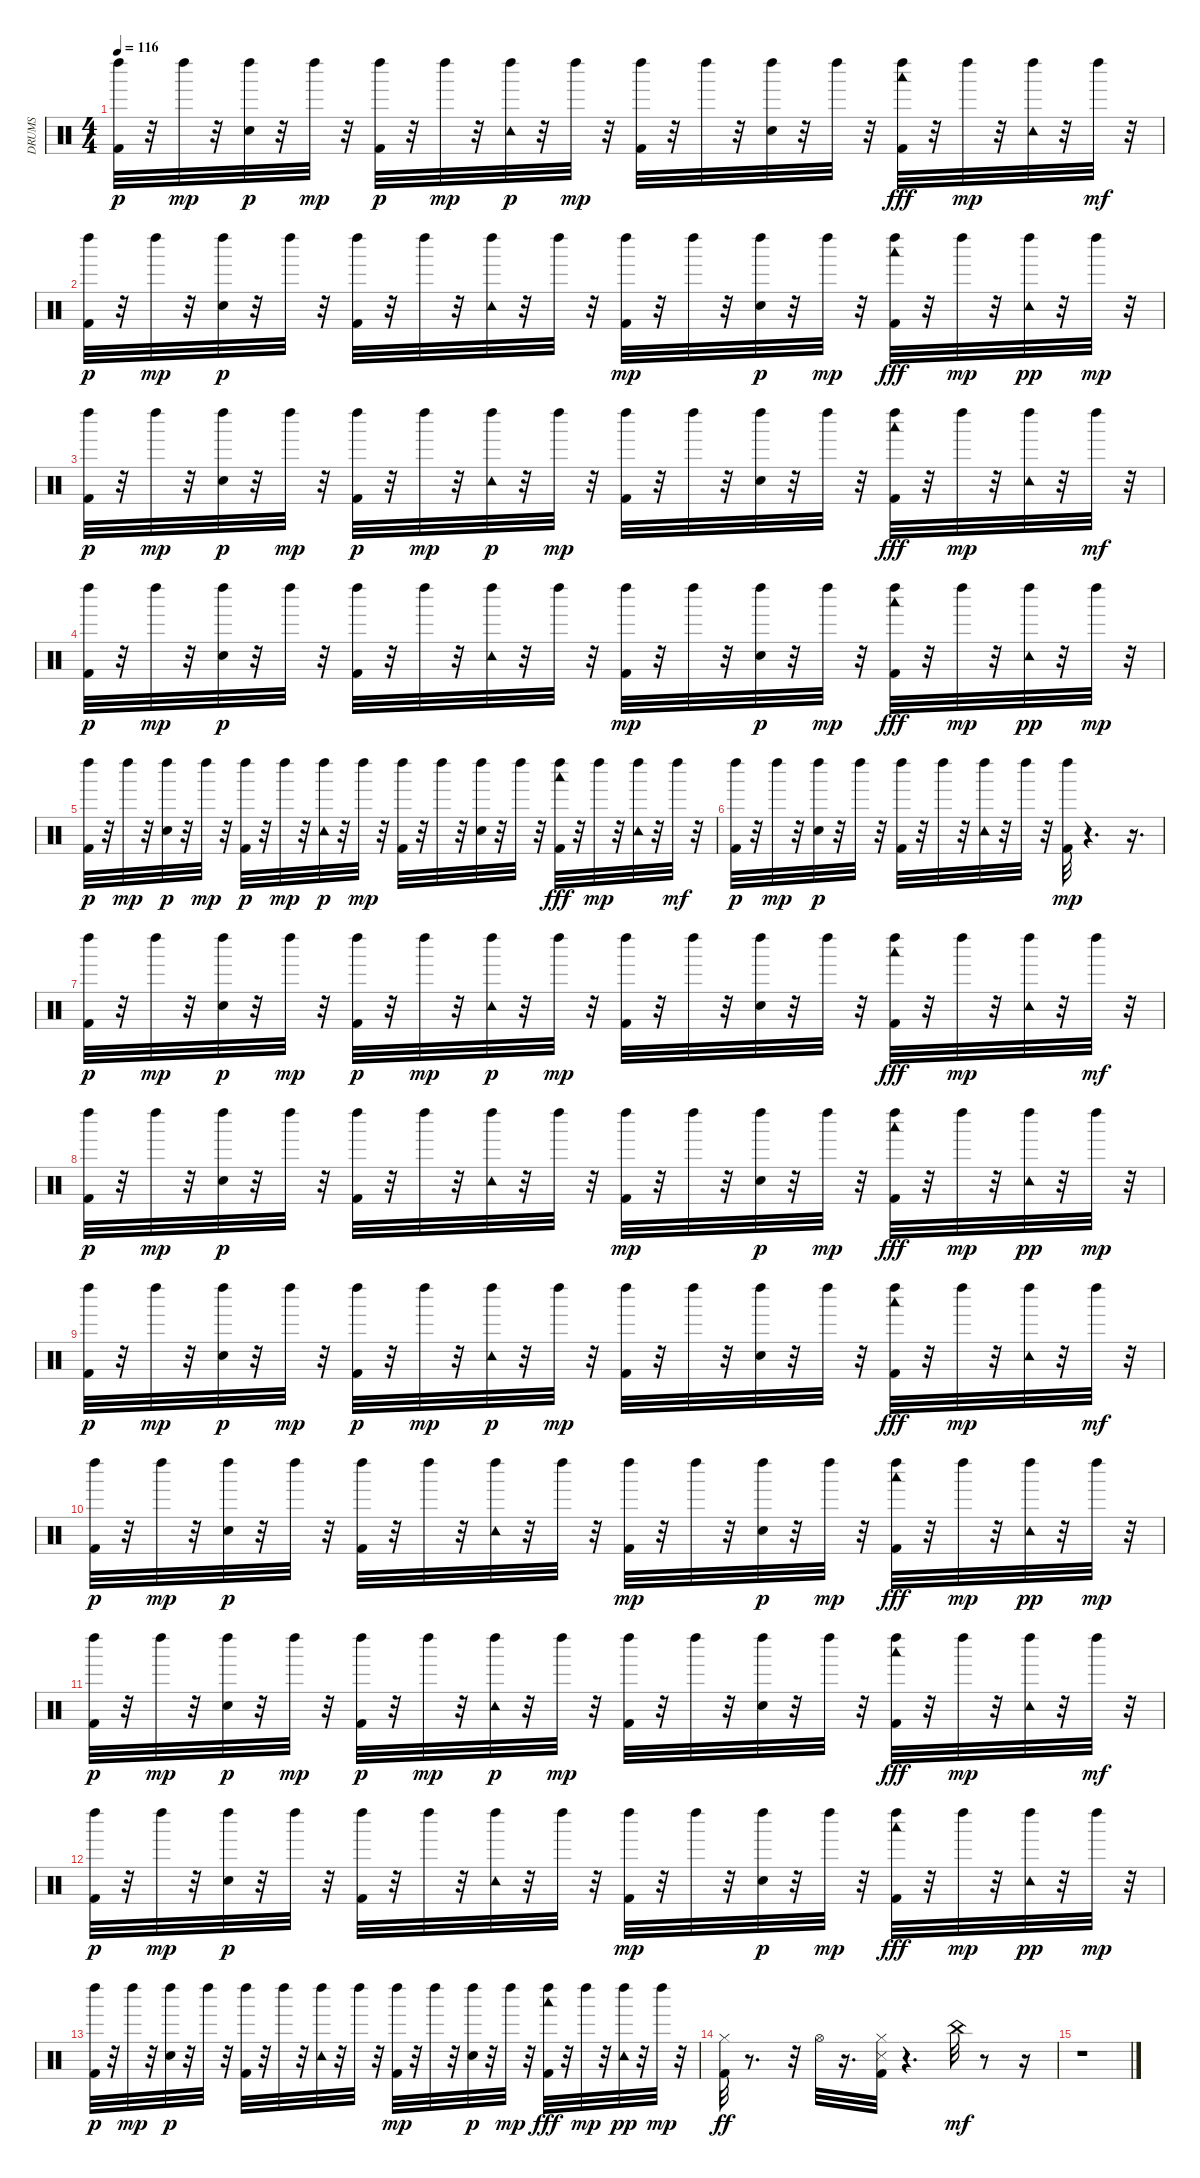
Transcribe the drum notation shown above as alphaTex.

\track ("DRUMS   " "DRUMS   ") {instrument percussion}
\staff {score}
\articulation defaults
\ts (4 4)
\tempo 116
\clef neutral
\ks c
("Kick (hit) 2" "Left Maraca (hit)").32{dy p} r.32 "Left Maraca (hit)".32{dy mp} r.32 ("Snare (hit) 2" "Left Maraca (hit)").32{dy p} r.32 "Left Maraca (hit)".32{dy mp} r.32 ("Kick (hit) 2" "Left Maraca (hit)").32{dy p} r.32 "Left Maraca (hit)".32{dy mp} r.32 ("Tambourine (hit)" "Left Maraca (hit)").32{dy p} r.32 "Left Maraca (hit)".32{dy mp} r.32 ("Kick (hit) 2" "Left Maraca (hit)").32 r.32 "Left Maraca (hit)".32 r.32 ("Snare (hit) 2" "Left Maraca (hit)").32 r.32 "Left Maraca (hit)".32 r.32 ("Kick (hit) 2" "Left Maraca (hit)" "Woodblock low (hit)").32{dy fff} r.32 "Left Maraca (hit)".32{dy mp} r.32 ("Tambourine (hit)" "Left Maraca (hit)").32 r.32 "Left Maraca (hit)".32{dy mf} r.32 |
("Kick (hit) 2" "Left Maraca (hit)").32{dy p} r.32 "Left Maraca (hit)".32{dy mp} r.32 ("Snare (hit) 2" "Left Maraca (hit)").32{dy p} r.32 "Left Maraca (hit)".32 r.32 ("Kick (hit) 2" "Left Maraca (hit)").32 r.32 "Left Maraca (hit)".32 r.32 ("Tambourine (hit)" "Left Maraca (hit)").32 r.32 "Left Maraca (hit)".32 r.32 ("Kick (hit) 2" "Left Maraca (hit)").32{dy mp} r.32 "Left Maraca (hit)".32 r.32 ("Snare (hit) 2" "Left Maraca (hit)").32{dy p} r.32 "Left Maraca (hit)".32{dy mp} r.32 ("Kick (hit) 2" "Left Maraca (hit)" "Woodblock low (hit)").32{dy fff} r.32 "Left Maraca (hit)".32{dy mp} r.32 ("Tambourine (hit)" "Left Maraca (hit)").32{dy pp} r.32 "Left Maraca (hit)".32{dy mp} r.32 |
("Kick (hit) 2" "Left Maraca (hit)").32{dy p} r.32 "Left Maraca (hit)".32{dy mp} r.32 ("Snare (hit) 2" "Left Maraca (hit)").32{dy p} r.32 "Left Maraca (hit)".32{dy mp} r.32 ("Kick (hit) 2" "Left Maraca (hit)").32{dy p} r.32 "Left Maraca (hit)".32{dy mp} r.32 ("Tambourine (hit)" "Left Maraca (hit)").32{dy p} r.32 "Left Maraca (hit)".32{dy mp} r.32 ("Kick (hit) 2" "Left Maraca (hit)").32 r.32 "Left Maraca (hit)".32 r.32 ("Snare (hit) 2" "Left Maraca (hit)").32 r.32 "Left Maraca (hit)".32 r.32 ("Kick (hit) 2" "Left Maraca (hit)" "Woodblock low (hit)").32{dy fff} r.32 "Left Maraca (hit)".32{dy mp} r.32 ("Tambourine (hit)" "Left Maraca (hit)").32 r.32 "Left Maraca (hit)".32{dy mf} r.32 |
("Kick (hit) 2" "Left Maraca (hit)").32{dy p} r.32 "Left Maraca (hit)".32{dy mp} r.32 ("Snare (hit) 2" "Left Maraca (hit)").32{dy p} r.32 "Left Maraca (hit)".32 r.32 ("Kick (hit) 2" "Left Maraca (hit)").32 r.32 "Left Maraca (hit)".32 r.32 ("Tambourine (hit)" "Left Maraca (hit)").32 r.32 "Left Maraca (hit)".32 r.32 ("Kick (hit) 2" "Left Maraca (hit)").32{dy mp} r.32 "Left Maraca (hit)".32 r.32 ("Snare (hit) 2" "Left Maraca (hit)").32{dy p} r.32 "Left Maraca (hit)".32{dy mp} r.32 ("Kick (hit) 2" "Left Maraca (hit)" "Woodblock low (hit)").32{dy fff} r.32 "Left Maraca (hit)".32{dy mp} r.32 ("Tambourine (hit)" "Left Maraca (hit)").32{dy pp} r.32 "Left Maraca (hit)".32{dy mp} r.32 |
("Kick (hit) 2" "Left Maraca (hit)").32{dy p} r.32 "Left Maraca (hit)".32{dy mp} r.32 ("Snare (hit) 2" "Left Maraca (hit)").32{dy p} r.32 "Left Maraca (hit)".32{dy mp} r.32 ("Kick (hit) 2" "Left Maraca (hit)").32{dy p} r.32 "Left Maraca (hit)".32{dy mp} r.32 ("Tambourine (hit)" "Left Maraca (hit)").32{dy p} r.32 "Left Maraca (hit)".32{dy mp} r.32 ("Kick (hit) 2" "Left Maraca (hit)").32 r.32 "Left Maraca (hit)".32 r.32 ("Snare (hit) 2" "Left Maraca (hit)").32 r.32 "Left Maraca (hit)".32 r.32 ("Kick (hit) 2" "Left Maraca (hit)" "Woodblock low (hit)").32{dy fff} r.32 "Left Maraca (hit)".32{dy mp} r.32 ("Tambourine (hit)" "Left Maraca (hit)").32 r.32 "Left Maraca (hit)".32{dy mf} r.32 |
("Kick (hit) 2" "Left Maraca (hit)").32{dy p} r.32 "Left Maraca (hit)".32{dy mp} r.32 ("Snare (hit) 2" "Left Maraca (hit)").32{dy p} r.32 "Left Maraca (hit)".32 r.32 ("Kick (hit) 2" "Left Maraca (hit)").32 r.32 "Left Maraca (hit)".32 r.32 ("Tambourine (hit)" "Left Maraca (hit)").32 r.32 "Left Maraca (hit)".32 r.32 ("Kick (hit) 2" "Left Maraca (hit)").32{dy mp} r.4{d} r.16{d} |
("Kick (hit) 2" "Left Maraca (hit)").32{dy p} r.32 "Left Maraca (hit)".32{dy mp} r.32 ("Snare (hit) 2" "Left Maraca (hit)").32{dy p} r.32 "Left Maraca (hit)".32{dy mp} r.32 ("Kick (hit) 2" "Left Maraca (hit)").32{dy p} r.32 "Left Maraca (hit)".32{dy mp} r.32 ("Tambourine (hit)" "Left Maraca (hit)").32{dy p} r.32 "Left Maraca (hit)".32{dy mp} r.32 ("Kick (hit) 2" "Left Maraca (hit)").32 r.32 "Left Maraca (hit)".32 r.32 ("Snare (hit) 2" "Left Maraca (hit)").32 r.32 "Left Maraca (hit)".32 r.32 ("Kick (hit) 2" "Left Maraca (hit)" "Woodblock low (hit)").32{dy fff} r.32 "Left Maraca (hit)".32{dy mp} r.32 ("Tambourine (hit)" "Left Maraca (hit)").32 r.32 "Left Maraca (hit)".32{dy mf} r.32 |
("Kick (hit) 2" "Left Maraca (hit)").32{dy p} r.32 "Left Maraca (hit)".32{dy mp} r.32 ("Snare (hit) 2" "Left Maraca (hit)").32{dy p} r.32 "Left Maraca (hit)".32 r.32 ("Kick (hit) 2" "Left Maraca (hit)").32 r.32 "Left Maraca (hit)".32 r.32 ("Tambourine (hit)" "Left Maraca (hit)").32 r.32 "Left Maraca (hit)".32 r.32 ("Kick (hit) 2" "Left Maraca (hit)").32{dy mp} r.32 "Left Maraca (hit)".32 r.32 ("Snare (hit) 2" "Left Maraca (hit)").32{dy p} r.32 "Left Maraca (hit)".32{dy mp} r.32 ("Kick (hit) 2" "Left Maraca (hit)" "Woodblock low (hit)").32{dy fff} r.32 "Left Maraca (hit)".32{dy mp} r.32 ("Tambourine (hit)" "Left Maraca (hit)").32{dy pp} r.32 "Left Maraca (hit)".32{dy mp} r.32 |
("Kick (hit) 2" "Left Maraca (hit)").32{dy p} r.32 "Left Maraca (hit)".32{dy mp} r.32 ("Snare (hit) 2" "Left Maraca (hit)").32{dy p} r.32 "Left Maraca (hit)".32{dy mp} r.32 ("Kick (hit) 2" "Left Maraca (hit)").32{dy p} r.32 "Left Maraca (hit)".32{dy mp} r.32 ("Tambourine (hit)" "Left Maraca (hit)").32{dy p} r.32 "Left Maraca (hit)".32{dy mp} r.32 ("Kick (hit) 2" "Left Maraca (hit)").32 r.32 "Left Maraca (hit)".32 r.32 ("Snare (hit) 2" "Left Maraca (hit)").32 r.32 "Left Maraca (hit)".32 r.32 ("Kick (hit) 2" "Left Maraca (hit)" "Woodblock low (hit)").32{dy fff} r.32 "Left Maraca (hit)".32{dy mp} r.32 ("Tambourine (hit)" "Left Maraca (hit)").32 r.32 "Left Maraca (hit)".32{dy mf} r.32 |
("Kick (hit) 2" "Left Maraca (hit)").32{dy p} r.32 "Left Maraca (hit)".32{dy mp} r.32 ("Snare (hit) 2" "Left Maraca (hit)").32{dy p} r.32 "Left Maraca (hit)".32 r.32 ("Kick (hit) 2" "Left Maraca (hit)").32 r.32 "Left Maraca (hit)".32 r.32 ("Tambourine (hit)" "Left Maraca (hit)").32 r.32 "Left Maraca (hit)".32 r.32 ("Kick (hit) 2" "Left Maraca (hit)").32{dy mp} r.32 "Left Maraca (hit)".32 r.32 ("Snare (hit) 2" "Left Maraca (hit)").32{dy p} r.32 "Left Maraca (hit)".32{dy mp} r.32 ("Kick (hit) 2" "Left Maraca (hit)" "Woodblock low (hit)").32{dy fff} r.32 "Left Maraca (hit)".32{dy mp} r.32 ("Tambourine (hit)" "Left Maraca (hit)").32{dy pp} r.32 "Left Maraca (hit)".32{dy mp} r.32 |
("Kick (hit) 2" "Left Maraca (hit)").32{dy p} r.32 "Left Maraca (hit)".32{dy mp} r.32 ("Snare (hit) 2" "Left Maraca (hit)").32{dy p} r.32 "Left Maraca (hit)".32{dy mp} r.32 ("Kick (hit) 2" "Left Maraca (hit)").32{dy p} r.32 "Left Maraca (hit)".32{dy mp} r.32 ("Tambourine (hit)" "Left Maraca (hit)").32{dy p} r.32 "Left Maraca (hit)".32{dy mp} r.32 ("Kick (hit) 2" "Left Maraca (hit)").32 r.32 "Left Maraca (hit)".32 r.32 ("Snare (hit) 2" "Left Maraca (hit)").32 r.32 "Left Maraca (hit)".32 r.32 ("Kick (hit) 2" "Left Maraca (hit)" "Woodblock low (hit)").32{dy fff} r.32 "Left Maraca (hit)".32{dy mp} r.32 ("Tambourine (hit)" "Left Maraca (hit)").32 r.32 "Left Maraca (hit)".32{dy mf} r.32 |
("Kick (hit) 2" "Left Maraca (hit)").32{dy p} r.32 "Left Maraca (hit)".32{dy mp} r.32 ("Snare (hit) 2" "Left Maraca (hit)").32{dy p} r.32 "Left Maraca (hit)".32 r.32 ("Kick (hit) 2" "Left Maraca (hit)").32 r.32 "Left Maraca (hit)".32 r.32 ("Tambourine (hit)" "Left Maraca (hit)").32 r.32 "Left Maraca (hit)".32 r.32 ("Kick (hit) 2" "Left Maraca (hit)").32{dy mp} r.32 "Left Maraca (hit)".32 r.32 ("Snare (hit) 2" "Left Maraca (hit)").32{dy p} r.32 "Left Maraca (hit)".32{dy mp} r.32 ("Kick (hit) 2" "Left Maraca (hit)" "Woodblock low (hit)").32{dy fff} r.32 "Left Maraca (hit)".32{dy mp} r.32 ("Tambourine (hit)" "Left Maraca (hit)").32{dy pp} r.32 "Left Maraca (hit)".32{dy mp} r.32 |
("Kick (hit) 2" "Left Maraca (hit)").32{dy p} r.32 "Left Maraca (hit)".32{dy mp} r.32 ("Snare (hit) 2" "Left Maraca (hit)").32{dy p} r.32 "Left Maraca (hit)".32 r.32 ("Kick (hit) 2" "Left Maraca (hit)").32 r.32 "Left Maraca (hit)".32 r.32 ("Tambourine (hit)" "Left Maraca (hit)").32 r.32 "Left Maraca (hit)".32 r.32 ("Kick (hit) 2" "Left Maraca (hit)").32{dy mp} r.32 "Left Maraca (hit)".32 r.32 ("Snare (hit) 2" "Left Maraca (hit)").32{dy p} r.32 "Left Maraca (hit)".32{dy mp} r.32 ("Kick (hit) 2" "Left Maraca (hit)" "Woodblock low (hit)").32{dy fff} r.32 "Left Maraca (hit)".32{dy mp} r.32 ("Tambourine (hit)" "Left Maraca (hit)").32{dy pp} r.32 "Left Maraca (hit)".32{dy mp} r.32 |
("Kick (hit) 2" "Hi-Hat (closed)").32{dy ff} r.8{d} r.32 "Hi-Hat (open)".32 r.16{d} ("Kick (hit) 2" "Snare (side stick) 3" "Hi-Hat (closed)").32 r.4{d} "China (hit)".32{dy mf} r.8 r.16 |
r.1
